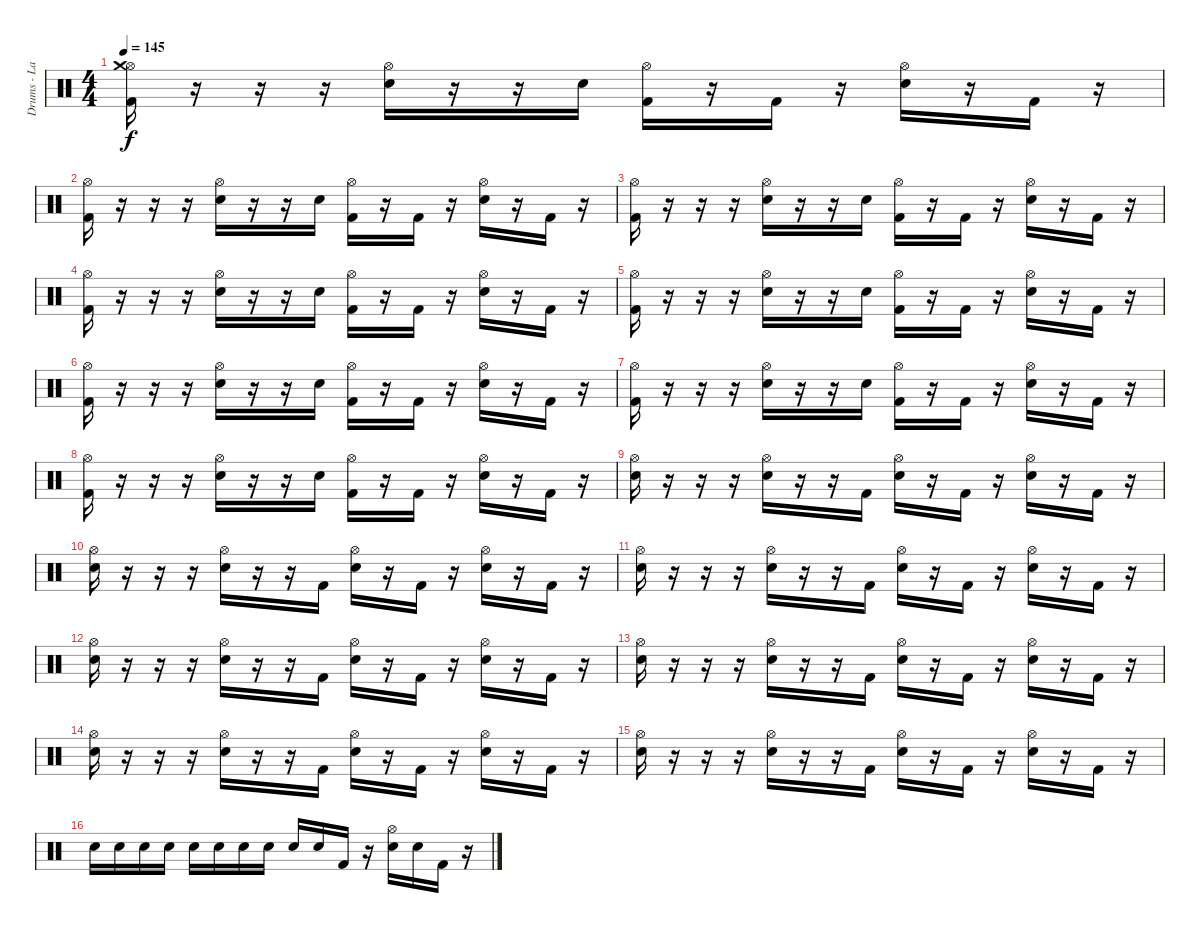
\track ("Drums - Larry Gorman" "Drums - La") {instrument percussion}
\staff {score}
\articulation defaults
\ts (4 4)
\tempo 145
\clef neutral
\ks c
("Hi-Hat (open)" "Crash medium (hit)" "Kick (hit) 2").16{dy f} r.16 r.16 r.16 ("Hi-Hat (open)" "Electric Snare (hit)").16 r.16 r.16 "Electric Snare (hit)".16 ("Hi-Hat (open)" "Kick (hit) 2").16 r.16 "Kick (hit) 2".16 r.16 ("Hi-Hat (open)" "Electric Snare (hit)").16 r.16 "Kick (hit) 2".16 r.16 |
("Hi-Hat (open)" "Kick (hit) 2").16 r.16 r.16 r.16 ("Hi-Hat (open)" "Electric Snare (hit)").16 r.16 r.16 "Electric Snare (hit)".16 ("Hi-Hat (open)" "Kick (hit) 2").16 r.16 "Kick (hit) 2".16 r.16 ("Hi-Hat (open)" "Electric Snare (hit)").16 r.16 "Kick (hit) 2".16 r.16 |
("Hi-Hat (open)" "Kick (hit) 2").16 r.16 r.16 r.16 ("Hi-Hat (open)" "Electric Snare (hit)").16 r.16 r.16 "Electric Snare (hit)".16 ("Hi-Hat (open)" "Kick (hit) 2").16 r.16 "Kick (hit) 2".16 r.16 ("Hi-Hat (open)" "Electric Snare (hit)").16 r.16 "Kick (hit) 2".16 r.16 |
("Hi-Hat (open)" "Kick (hit) 2").16 r.16 r.16 r.16 ("Hi-Hat (open)" "Electric Snare (hit)").16 r.16 r.16 "Electric Snare (hit)".16 ("Hi-Hat (open)" "Kick (hit) 2").16 r.16 "Kick (hit) 2".16 r.16 ("Hi-Hat (open)" "Electric Snare (hit)").16 r.16 "Kick (hit) 2".16 r.16 |
("Hi-Hat (open)" "Kick (hit) 2").16 r.16 r.16 r.16 ("Hi-Hat (open)" "Electric Snare (hit)").16 r.16 r.16 "Electric Snare (hit)".16 ("Hi-Hat (open)" "Kick (hit) 2").16 r.16 "Kick (hit) 2".16 r.16 ("Hi-Hat (open)" "Electric Snare (hit)").16 r.16 "Kick (hit) 2".16 r.16 |
("Hi-Hat (open)" "Kick (hit) 2").16 r.16 r.16 r.16 ("Hi-Hat (open)" "Electric Snare (hit)").16 r.16 r.16 "Electric Snare (hit)".16 ("Hi-Hat (open)" "Kick (hit) 2").16 r.16 "Kick (hit) 2".16 r.16 ("Hi-Hat (open)" "Electric Snare (hit)").16 r.16 "Kick (hit) 2".16 r.16 |
("Hi-Hat (open)" "Kick (hit) 2").16 r.16 r.16 r.16 ("Hi-Hat (open)" "Electric Snare (hit)").16 r.16 r.16 "Electric Snare (hit)".16 ("Hi-Hat (open)" "Kick (hit) 2").16 r.16 "Kick (hit) 2".16 r.16 ("Hi-Hat (open)" "Electric Snare (hit)").16 r.16 "Kick (hit) 2".16 r.16 |
("Hi-Hat (open)" "Kick (hit) 2").16 r.16 r.16 r.16 ("Hi-Hat (open)" "Electric Snare (hit)").16 r.16 r.16 "Electric Snare (hit)".16 ("Hi-Hat (open)" "Kick (hit) 2").16 r.16 "Kick (hit) 2".16 r.16 ("Hi-Hat (open)" "Electric Snare (hit)").16 r.16 "Kick (hit) 2".16 r.16 |
("Hi-Hat (open)" "Electric Snare (hit)").16 r.16 r.16 r.16 ("Hi-Hat (open)" "Electric Snare (hit)").16 r.16 r.16 "Kick (hit) 2".16 ("Hi-Hat (open)" "Electric Snare (hit)").16 r.16 "Kick (hit) 2".16 r.16 ("Hi-Hat (open)" "Electric Snare (hit)").16 r.16 "Kick (hit) 2".16 r.16 |
("Hi-Hat (open)" "Electric Snare (hit)").16 r.16 r.16 r.16 ("Hi-Hat (open)" "Electric Snare (hit)").16 r.16 r.16 "Kick (hit) 2".16 ("Hi-Hat (open)" "Electric Snare (hit)").16 r.16 "Kick (hit) 2".16 r.16 ("Hi-Hat (open)" "Electric Snare (hit)").16 r.16 "Kick (hit) 2".16 r.16 |
("Hi-Hat (open)" "Electric Snare (hit)").16 r.16 r.16 r.16 ("Hi-Hat (open)" "Electric Snare (hit)").16 r.16 r.16 "Kick (hit) 2".16 ("Hi-Hat (open)" "Electric Snare (hit)").16 r.16 "Kick (hit) 2".16 r.16 ("Hi-Hat (open)" "Electric Snare (hit)").16 r.16 "Kick (hit) 2".16 r.16 |
("Hi-Hat (open)" "Electric Snare (hit)").16 r.16 r.16 r.16 ("Hi-Hat (open)" "Electric Snare (hit)").16 r.16 r.16 "Kick (hit) 2".16 ("Hi-Hat (open)" "Electric Snare (hit)").16 r.16 "Kick (hit) 2".16 r.16 ("Hi-Hat (open)" "Electric Snare (hit)").16 r.16 "Kick (hit) 2".16 r.16 |
("Hi-Hat (open)" "Electric Snare (hit)").16 r.16 r.16 r.16 ("Hi-Hat (open)" "Electric Snare (hit)").16 r.16 r.16 "Kick (hit) 2".16 ("Hi-Hat (open)" "Electric Snare (hit)").16 r.16 "Kick (hit) 2".16 r.16 ("Hi-Hat (open)" "Electric Snare (hit)").16 r.16 "Kick (hit) 2".16 r.16 |
("Hi-Hat (open)" "Electric Snare (hit)").16 r.16 r.16 r.16 ("Hi-Hat (open)" "Electric Snare (hit)").16 r.16 r.16 "Kick (hit) 2".16 ("Hi-Hat (open)" "Electric Snare (hit)").16 r.16 "Kick (hit) 2".16 r.16 ("Hi-Hat (open)" "Electric Snare (hit)").16 r.16 "Kick (hit) 2".16 r.16 |
("Hi-Hat (open)" "Electric Snare (hit)").16 r.16 r.16 r.16 ("Hi-Hat (open)" "Electric Snare (hit)").16 r.16 r.16 "Kick (hit) 2".16 ("Hi-Hat (open)" "Electric Snare (hit)").16 r.16 "Kick (hit) 2".16 r.16 ("Hi-Hat (open)" "Electric Snare (hit)").16 r.16 "Kick (hit) 2".16 r.16 |
"Electric Snare (hit)".16 "Electric Snare (hit)".16 "Electric Snare (hit)".16 "Electric Snare (hit)".16 "Electric Snare (hit)".16 "Electric Snare (hit)".16 "Electric Snare (hit)".16 "Electric Snare (hit)".16 "Electric Snare (hit)".16 "Electric Snare (hit)".16 "Kick (hit) 2".16 r.16 ("Hi-Hat (open)" "Electric Snare (hit)").16 "Electric Snare (hit)".16 "Kick (hit) 2".16 r.16
